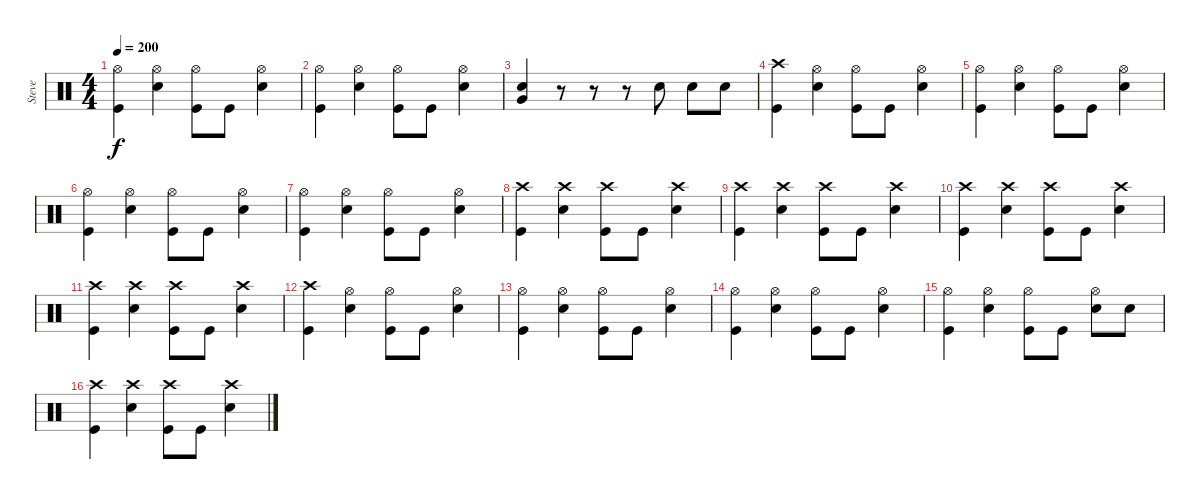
\track ("Steve" "Steve") {instrument percussion}
\staff {score}
\articulation defaults
\ts (4 4)
\tempo 200
\clef neutral
\ks c
("Hi-Hat (open)" "Kick (hit)").4{dy f} ("Hi-Hat (open)" "Snare (hit) 2").4 ("Hi-Hat (open)" "Kick (hit)").8 "Kick (hit)".8 ("Hi-Hat (open)" "Snare (hit) 2").4 |
("Hi-Hat (open)" "Kick (hit)").4 ("Hi-Hat (open)" "Snare (hit) 2").4 ("Hi-Hat (open)" "Kick (hit)").8 "Kick (hit)".8 ("Hi-Hat (open)" "Snare (hit) 2").4 |
("Very Low Tom (hit)" "Snare (hit) 2").4 r.8 r.8 r.8 "Snare (hit) 2".8 "Snare (hit) 2".8 "Snare (hit) 2".8 |
("Crash high (hit)" "Kick (hit)").4 ("Hi-Hat (open)" "Snare (hit) 2").4 ("Hi-Hat (open)" "Kick (hit)").8 "Kick (hit)".8 ("Hi-Hat (open)" "Snare (hit) 2").4 |
("Hi-Hat (open)" "Kick (hit)").4 ("Hi-Hat (open)" "Snare (hit) 2").4 ("Hi-Hat (open)" "Kick (hit)").8 "Kick (hit)".8 ("Hi-Hat (open)" "Snare (hit) 2").4 |
("Hi-Hat (open)" "Kick (hit)").4 ("Hi-Hat (open)" "Snare (hit) 2").4 ("Hi-Hat (open)" "Kick (hit)").8 "Kick (hit)".8 ("Hi-Hat (open)" "Snare (hit) 2").4 |
("Hi-Hat (open)" "Kick (hit)").4 ("Hi-Hat (open)" "Snare (hit) 2").4 ("Hi-Hat (open)" "Kick (hit)").8 "Kick (hit)".8 ("Hi-Hat (open)" "Snare (hit) 2").4 |
("Crash high (hit)" "Kick (hit)").4 ("Crash high (hit)" "Snare (hit) 2").4 ("Crash high (hit)" "Kick (hit)").8 "Kick (hit)".8 ("Crash high (hit)" "Snare (hit) 2").4 |
("Crash high (hit)" "Kick (hit)").4 ("Crash high (hit)" "Snare (hit) 2").4 ("Crash high (hit)" "Kick (hit)").8 "Kick (hit)".8 ("Crash high (hit)" "Snare (hit) 2").4 |
("Crash high (hit)" "Kick (hit)").4 ("Crash high (hit)" "Snare (hit) 2").4 ("Crash high (hit)" "Kick (hit)").8 "Kick (hit)".8 ("Crash high (hit)" "Snare (hit) 2").4 |
("Crash high (hit)" "Kick (hit)").4 ("Crash high (hit)" "Snare (hit) 2").4 ("Crash high (hit)" "Kick (hit)").8 "Kick (hit)".8 ("Crash high (hit)" "Snare (hit) 2").4 |
("Crash high (hit)" "Kick (hit)").4 ("Hi-Hat (open)" "Snare (hit) 2").4 ("Hi-Hat (open)" "Kick (hit)").8 "Kick (hit)".8 ("Hi-Hat (open)" "Snare (hit) 2").4 |
("Hi-Hat (open)" "Kick (hit)").4 ("Hi-Hat (open)" "Snare (hit) 2").4 ("Hi-Hat (open)" "Kick (hit)").8 "Kick (hit)".8 ("Hi-Hat (open)" "Snare (hit) 2").4 |
("Hi-Hat (open)" "Kick (hit)").4 ("Hi-Hat (open)" "Snare (hit) 2").4 ("Hi-Hat (open)" "Kick (hit)").8 "Kick (hit)".8 ("Hi-Hat (open)" "Snare (hit) 2").4 |
("Hi-Hat (open)" "Kick (hit)").4 ("Hi-Hat (open)" "Snare (hit) 2").4 ("Hi-Hat (open)" "Kick (hit)").8 "Kick (hit)".8 ("Hi-Hat (open)" "Snare (hit) 2").8 "Snare (hit) 2".8 |
("Crash high (hit)" "Kick (hit)").4 ("Crash high (hit)" "Snare (hit) 2").4 ("Crash high (hit)" "Kick (hit)").8 "Kick (hit)".8 ("Crash high (hit)" "Snare (hit) 2").4
